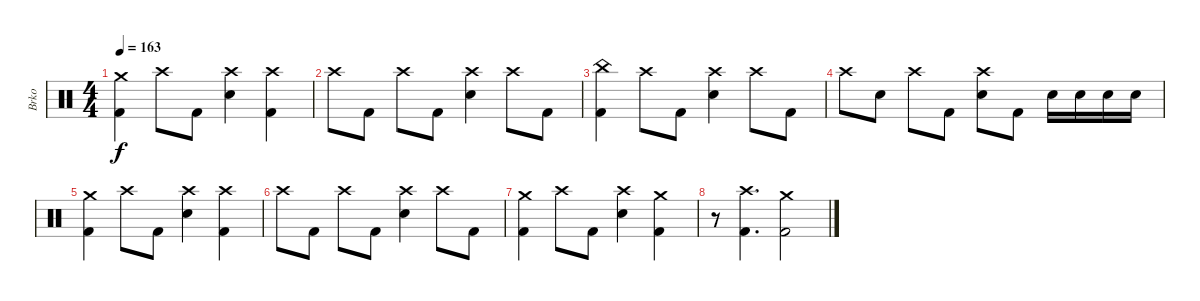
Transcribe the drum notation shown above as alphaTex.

\track ("Brko" "Brko") {instrument percussion}
\staff {score}
\articulation defaults
\ts (4 4)
\tempo 163
\clef neutral
\ks c
("Crash medium (hit)" "Kick (hit) 2").4{dy f} "Crash high (hit)".8 "Kick (hit) 2".8 ("Crash high (hit)" "Electric Snare (hit)").4 ("Crash high (hit)" "Kick (hit) 2").4 |
"Crash high (hit)".8 "Kick (hit) 2".8 "Crash high (hit)".8 "Kick (hit) 2".8 ("Crash high (hit)" "Electric Snare (hit)").4 "Crash high (hit)".8 "Kick (hit) 2".8 |
("China (hit)" "Kick (hit) 2").4 "Crash high (hit)".8 "Kick (hit) 2".8 ("Crash high (hit)" "Electric Snare (hit)").4 "Crash high (hit)".8 "Kick (hit) 2".8 |
"Crash high (hit)".8 "Electric Snare (hit)".8 "Crash high (hit)".8 "Kick (hit) 2".8 ("Crash high (hit)" "Electric Snare (hit)").8 "Kick (hit) 2".8 "Electric Snare (hit)".16 "Electric Snare (hit)".16 "Electric Snare (hit)".16 "Electric Snare (hit)".16 |
("Crash medium (hit)" "Kick (hit) 2").4 "Crash high (hit)".8 "Kick (hit) 2".8 ("Crash high (hit)" "Electric Snare (hit)").4 ("Crash high (hit)" "Kick (hit) 2").4 |
"Crash high (hit)".8 "Kick (hit) 2".8 "Crash high (hit)".8 "Kick (hit) 2".8 ("Crash high (hit)" "Electric Snare (hit)").4 "Crash high (hit)".8 "Kick (hit) 2".8 |
("Crash medium (hit)" "Kick (hit) 2").4 "Crash high (hit)".8 "Kick (hit) 2".8 ("Crash high (hit)" "Electric Snare (hit)").4 ("Crash medium (hit)" "Kick (hit) 2").4 |
r.8 ("Crash high (hit)" "Kick (hit) 2").4{d} ("Crash medium (hit)" "Kick (hit) 2").2
